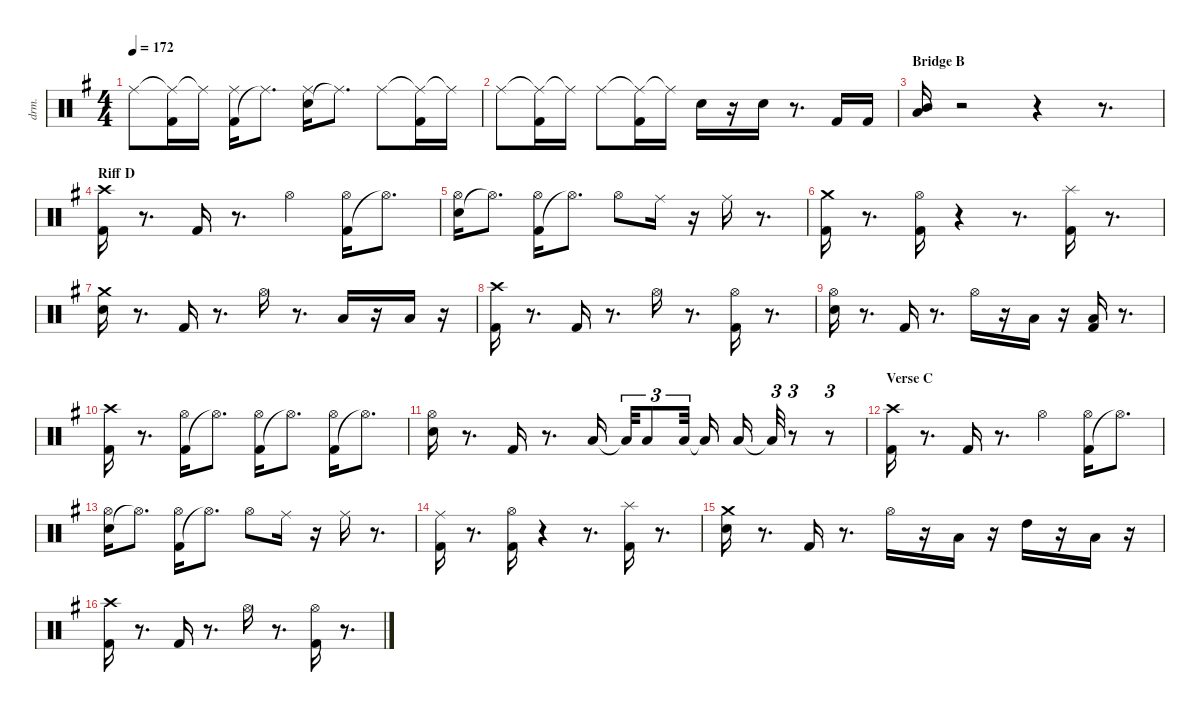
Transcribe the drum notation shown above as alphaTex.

\defaultSystemsLayout 4
\hideDynamics
\bracketExtendMode nobrackets
\otherSystemsTrackNameOrientation horizontal
\track ("Shinya" "drm.") {instrument percussion}
\staff {score}
\articulation defaults
\ts (4 4)
\tempo 172
\clef neutral
\ks eminor "Ride (middle)"{acc #}.8{dy fff beam Down}
("Ride (middle)"{t acc #} "Kick (hit) 2"{acc forcenatural}).16{beam Down} "Ride (middle)"{t acc #}.16{beam Down} ("Kick (hit) 2"{acc forcenatural} "Ride (middle)"{acc #}).16{beam Down} "Ride (middle)"{t acc #}.8{d beam Down} ("Snare (hit) 2"{acc forcenatural} "Ride (middle)"{acc #}).16{beam Down} "Ride (middle)"{t acc #}.8{d beam Down} "Ride (middle)"{acc #}.8{beam Down} ("Ride (middle)"{t acc #} "Kick (hit) 2"{acc forcenatural}).16{beam Down} "Ride (middle)"{t acc #}.16{beam Down} |
"Ride (middle)"{acc #}.8{beam Down} ("Ride (middle)"{t acc #} "Kick (hit) 2"{acc forcenatural}).16{beam Down} "Ride (middle)"{t acc #}.16{beam Down} "Ride (middle)"{acc #}.8{beam Down} ("Ride (middle)"{t acc #} "Kick (hit) 2"{acc forcenatural}).16{beam Down} "Ride (middle)"{t acc #}.16{beam Down} "Snare (hit) 2"{acc forcenatural}.16{beam Down} r.16{beam Down} "Snare (hit) 2"{acc forcenatural}.16{beam Down} r.8{d beam Down} "Kick (hit) 2"{acc forcenatural}.16{beam Up} "Kick (hit) 2"{acc forcenatural}.16{beam Up} |
\section ("" "Bridge B")
("Low Tom (hit)"{acc forcenatural} "Mid Tom (hit)"{acc forcenatural}).16{beam Up} r.2{beam Up} r.4{beam Up} r.8{d beam Up} |
\section ("" "Riff D")
("Kick (hit) 2"{acc forcenatural} "Crash high (hit)"{acc #}).16{beam Down} r.8{d beam Down} "Kick (hit) 2"{acc forcenatural}.16{beam Up} r.8{d beam Up} "Hi-Hat (open)"{acc #}.4{beam Down} ("Kick (hit) 2"{acc forcenatural} "Hi-Hat (open)"{acc #}).16{beam Down} "Hi-Hat (open)"{t acc #}.8{d beam Down} |
("Snare (hit) 2"{acc forcenatural} "Hi-Hat (open)"{acc #}).16{beam Down} "Hi-Hat (open)"{t acc #}.8{d beam Down} ("Kick (hit) 2"{acc forcenatural} "Hi-Hat (open)"{acc #}).16{beam Down} "Hi-Hat (open)"{t acc #}.8{d beam Down} "Hi-Hat (open)"{acc #}.8{beam Down} "Ride (middle)"{acc #}.16{beam Down} r.16{beam Down} "Ride (middle)"{acc #}.16{beam Down} r.8{d beam Down} |
("Kick (hit) 2"{acc forcenatural} "Crash medium (hit)"{acc forcenatural}).16{beam Down} r.8{d beam Down} ("Kick (hit) 2"{acc forcenatural} "Hi-Hat (open)"{acc #}).16{beam Down} r.4{beam Down} r.8{d beam Down} ("Kick (hit) 2"{acc forcenatural} "Splash (hit)"{acc forcenatural}).16{beam Down} r.8{d beam Down} |
("Snare (hit) 2"{acc forcenatural} "Crash medium (hit)"{acc forcenatural}).16{beam Down} r.8{d beam Down} "Kick (hit) 2"{acc forcenatural}.16{beam Up} r.8{d beam Up} "Hi-Hat (open)"{acc #}.16{beam Down} r.8{d beam Down} "Low Tom (hit)"{acc forcenatural}.16{beam Up} r.16{beam Up} "Low Tom (hit)"{acc forcenatural}.16{beam Up} r.16{beam Up} |
("Kick (hit) 2"{acc forcenatural} "Crash high (hit)"{acc #}).16{beam Down} r.8{d beam Down} "Kick (hit) 2"{acc forcenatural}.16{beam Up} r.8{d beam Up} "Hi-Hat (open)"{acc #}.16{beam Down} r.8{d beam Down} ("Kick (hit) 2"{acc forcenatural} "Hi-Hat (open)"{acc #}).16{beam Down} r.8{d beam Down} |
("Snare (hit) 2"{acc forcenatural} "Hi-Hat (open)"{acc #}).16{beam Down} r.8{d beam Down} "Kick (hit) 2"{acc forcenatural}.16{beam Up} r.8{d beam Up} "Hi-Hat (open)"{acc #}.16{beam Down} r.16{beam Down} "Low Tom (hit)"{acc forcenatural}.16{beam Down} r.16{beam Down} ("Kick (hit) 2"{acc forcenatural} "Low Tom (hit)"{acc forcenatural}).16{beam Up} r.8{d beam Up} |
("Kick (hit) 2"{acc forcenatural} "Crash high (hit)"{acc #}).16{beam Down} r.8{d beam Down} ("Kick (hit) 2"{acc forcenatural} "Hi-Hat (open)"{acc #}).16{beam Down} "Hi-Hat (open)"{t acc #}.8{d beam Down} ("Kick (hit) 2"{acc forcenatural} "Hi-Hat (open)"{acc #}).16{beam Down} "Hi-Hat (open)"{t acc #}.8{d beam Down} ("Kick (hit) 2"{acc forcenatural} "Hi-Hat (open)"{acc #}).16{dy ff beam Down} "Hi-Hat (open)"{t acc #}.8{d beam Down} |
("Snare (hit) 2"{acc forcenatural} "Hi-Hat (open)"{acc #}).16{dy fff beam Down} r.8{d beam Down} "Kick (hit) 2"{acc forcenatural}.16{beam Up} r.8{d beam Up} "Low Tom (hit)"{acc forcenatural}.16{dy ff beam Up} "Low Tom (hit)"{t acc forcenatural}.32{tu (3 2) beam Up} "Low Tom (hit)"{acc forcenatural}.8{tu (3 2) dy fff beam Up} "Low Tom (hit)"{acc forcenatural}.32{tu (3 2) beam Up} "Low Tom (hit)"{t acc forcenatural}.16{beam Up} "Low Tom (hit)"{acc forcenatural}.16{beam Up} "Low Tom (hit)"{t acc forcenatural}.32{tu (3 2) beam Up} r.8{tu (3 2) beam Up} r.8{tu (3 2) beam Up} |
\section ("" "Verse C")
("Kick (hit) 2"{acc forcenatural} "Crash high (hit)"{acc #}).16{beam Down} r.8{d beam Down} "Kick (hit) 2"{acc forcenatural}.16{beam Up} r.8{d beam Up} "Hi-Hat (open)"{acc #}.4{beam Down} ("Kick (hit) 2"{acc forcenatural} "Hi-Hat (open)"{acc #}).16{beam Down} "Hi-Hat (open)"{t acc #}.8{d beam Down} |
("Snare (hit) 2"{acc forcenatural} "Hi-Hat (open)"{acc #}).16{beam Down} "Hi-Hat (open)"{t acc #}.8{d beam Down} ("Kick (hit) 2"{acc forcenatural} "Hi-Hat (open)"{acc #}).16{beam Down} "Hi-Hat (open)"{t acc #}.8{d beam Down} "Hi-Hat (open)"{acc #}.8{beam Down} "Ride (middle)"{acc #}.16{beam Down} r.16{beam Down} "Ride (middle)"{acc #}.16{beam Down} r.8{d beam Down} |
("Kick (hit) 2"{acc forcenatural} "Ride (middle)"{acc #}).16{beam Down} r.8{d beam Down} ("Kick (hit) 2"{acc forcenatural} "Hi-Hat (open)"{acc #}).16{beam Down} r.4{beam Down} r.8{d beam Down} ("Kick (hit) 2"{acc forcenatural} "Splash (hit)"{acc forcenatural}).16{beam Down} r.8{d beam Down} |
("Snare (hit) 2"{acc forcenatural} "Crash medium (hit)"{acc forcenatural}).16{beam Down} r.8{d beam Down} "Kick (hit) 2"{acc forcenatural}.16{beam Up} r.8{d beam Up} "Hi-Hat (open)"{acc #}.16{beam Down} r.16{beam Down} "Low Tom (hit)"{acc forcenatural}.16{dy ff beam Down} r.16{beam Down} "High Tom (hit)"{acc forcenatural}.16{dy fff beam Down} r.16{beam Down} "Low Tom (hit)"{acc forcenatural}.16{beam Down} r.16{beam Down} |
("Kick (hit) 2"{acc forcenatural} "Crash high (hit)"{acc #}).16{beam Down} r.8{d beam Down} "Kick (hit) 2"{acc forcenatural}.16{beam Up} r.8{d beam Up} "Hi-Hat (open)"{acc #}.16{beam Down} r.8{d beam Down} ("Kick (hit) 2"{acc forcenatural} "Hi-Hat (open)"{acc #}).16{beam Down} r.8{d beam Down}
